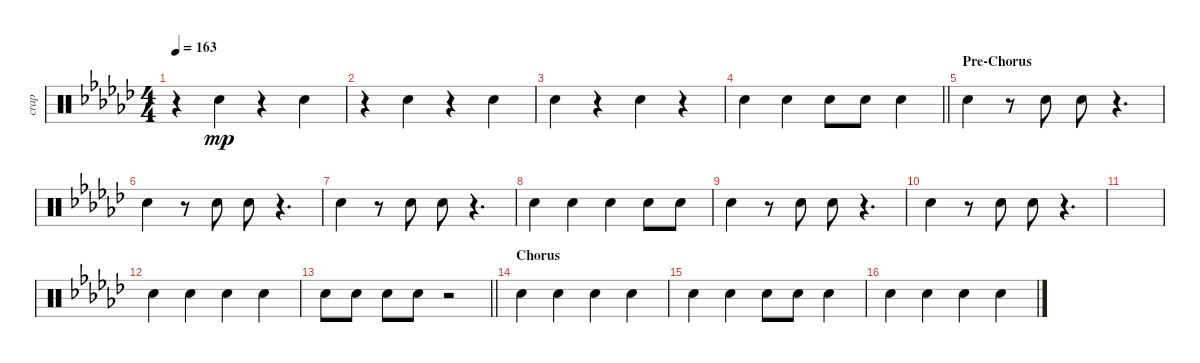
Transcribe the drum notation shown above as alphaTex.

\track ("crap" "crap") {mute instrument percussion}
\staff {score}
\articulation defaults
\ts (4 4)
\tempo 163
\clef neutral
\ks gb
r.4{dy mp} "Hand Clap (hit)".4 r.4 "Hand Clap (hit)".4 |
r.4 "Hand Clap (hit)".4 r.4 "Hand Clap (hit)".4 |
"Hand Clap (hit)".4 r.4 "Hand Clap (hit)".4 r.4 |
\barLineRight lightlight "Hand Clap (hit)".4 "Hand Clap (hit)".4 "Hand Clap (hit)".8 "Hand Clap (hit)".8 "Hand Clap (hit)".4
|
\section ("" "Pre-Chorus")
"Hand Clap (hit)".4 r.8 "Hand Clap (hit)".8 "Hand Clap (hit)".8 r.4{d} |
"Hand Clap (hit)".4 r.8 "Hand Clap (hit)".8 "Hand Clap (hit)".8 r.4{d} |
"Hand Clap (hit)".4 r.8 "Hand Clap (hit)".8 "Hand Clap (hit)".8 r.4{d} |
"Hand Clap (hit)".4 "Hand Clap (hit)".4 "Hand Clap (hit)".4 "Hand Clap (hit)".8 "Hand Clap (hit)".8 |
"Hand Clap (hit)".4 r.8 "Hand Clap (hit)".8 "Hand Clap (hit)".8 r.4{d} |
"Hand Clap (hit)".4 r.8 "Hand Clap (hit)".8 "Hand Clap (hit)".8 r.4{d} |
|
"Hand Clap (hit)".4 "Hand Clap (hit)".4 "Hand Clap (hit)".4 "Hand Clap (hit)".4 |
\barLineRight lightlight "Hand Clap (hit)".8 "Hand Clap (hit)".8 "Hand Clap (hit)".8 "Hand Clap (hit)".8
r.2 |
\section ("" "Chorus")
"Hand Clap (hit)".4 "Hand Clap (hit)".4 "Hand Clap (hit)".4 "Hand Clap (hit)".4 |
"Hand Clap (hit)".4 "Hand Clap (hit)".4 "Hand Clap (hit)".8 "Hand Clap (hit)".8 "Hand Clap (hit)".4 |
"Hand Clap (hit)".4 "Hand Clap (hit)".4 "Hand Clap (hit)".4 "Hand Clap (hit)".4
